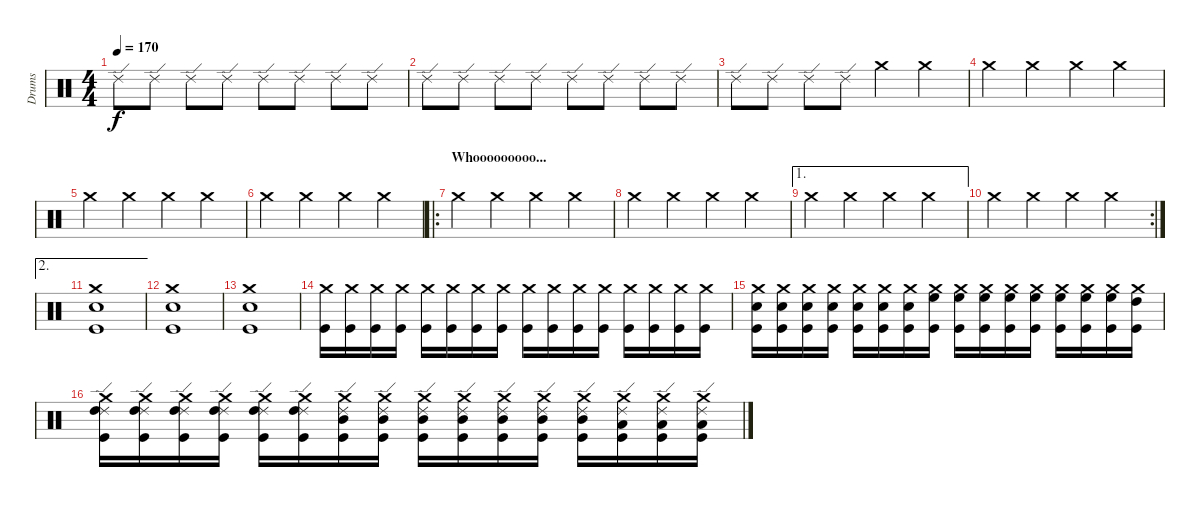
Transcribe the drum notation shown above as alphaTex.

\track ("Drums" "Drums") {instrument percussion}
\staff {score}
\articulation defaults
\ts (4 4)
\tempo 170
\clef neutral
\ks c "Ride (edge) 2".8{dy f} "Ride (edge) 2".8 "Ride (edge) 2".8 "Ride (edge) 2".8 "Ride (edge) 2".8 "Ride (edge) 2".8 "Ride (edge) 2".8 "Ride (edge) 2".8
|
"Ride (edge) 2".8 "Ride (edge) 2".8 "Ride (edge) 2".8 "Ride (edge) 2".8 "Ride (edge) 2".8 "Ride (edge) 2".8 "Ride (edge) 2".8 "Ride (edge) 2".8 |
"Ride (edge) 2".8 "Ride (edge) 2".8 "Ride (edge) 2".8 "Ride (edge) 2".8 "Crash medium (hit)".4 "Crash medium (hit)".4 |
"Crash medium (hit)".4 "Crash medium (hit)".4 "Crash medium (hit)".4 "Crash medium (hit)".4 |
"Crash medium (hit)".4 "Crash medium (hit)".4 "Crash medium (hit)".4 "Crash medium (hit)".4 |
"Crash medium (hit)".4 "Crash medium (hit)".4 "Crash medium (hit)".4 "Crash medium (hit)".4 |
\ro
\section ("" "Whooooooooo...")
"Crash medium (hit)".4 "Crash medium (hit)".4 "Crash medium (hit)".4 "Crash medium (hit)".4 |
"Crash medium (hit)".4 "Crash medium (hit)".4 "Crash medium (hit)".4 "Crash medium (hit)".4 |
\ae 1 "Crash medium (hit)".4 "Crash medium (hit)".4 "Crash medium (hit)".4 "Crash medium (hit)".4
|
\rc 2 "Crash medium (hit)".4 "Crash medium (hit)".4 "Crash medium (hit)".4 "Crash medium (hit)".4
|
\ae 2
("Snare (hit) 2" "Kick (hit)" "Crash medium (hit)").1 |
("Crash medium (hit)" "Snare (hit) 2" "Kick (hit)").1 |
("Crash medium (hit)" "Snare (hit) 2" "Kick (hit)").1 |
("Crash medium (hit)" "Kick (hit)").16 ("Crash medium (hit)" "Kick (hit)").16 ("Crash medium (hit)" "Kick (hit)").16 ("Crash medium (hit)" "Kick (hit)").16 ("Crash medium (hit)" "Kick (hit)").16 ("Crash medium (hit)" "Kick (hit)").16 ("Crash medium (hit)" "Kick (hit)").16 ("Crash medium (hit)" "Kick (hit)").16 ("Crash medium (hit)" "Kick (hit)").16 ("Crash medium (hit)" "Kick (hit)").16 ("Crash medium (hit)" "Kick (hit)").16 ("Crash medium (hit)" "Kick (hit)").16 ("Crash medium (hit)" "Kick (hit)").16 ("Crash medium (hit)" "Kick (hit)").16 ("Crash medium (hit)" "Kick (hit)").16 ("Crash medium (hit)" "Kick (hit)").16 |
("Crash medium (hit)" "Snare (hit) 2" "Kick (hit)").16 ("Crash medium (hit)" "Snare (hit) 2" "Kick (hit)").16 ("Crash medium (hit)" "Snare (hit) 2" "Kick (hit)").16 ("Crash medium (hit)" "Snare (hit) 2" "Kick (hit)").16 ("Crash medium (hit)" "Snare (hit) 2" "Kick (hit)").16 ("Crash medium (hit)" "Snare (hit) 2" "Kick (hit)").16 ("Crash medium (hit)" "Snare (hit) 2" "Kick (hit)").16 ("Crash medium (hit)" "High Floor Tom (hit)" "Kick (hit)").16 ("Crash medium (hit)" "High Floor Tom (hit)" "Kick (hit)").16 ("Crash medium (hit)" "High Floor Tom (hit)" "Kick (hit)").16 ("Crash medium (hit)" "High Floor Tom (hit)" "Kick (hit)").16 ("Crash medium (hit)" "High Floor Tom (hit)" "Kick (hit)").16 ("Crash medium (hit)" "High Floor Tom (hit)" "Kick (hit)").16 ("Crash medium (hit)" "High Floor Tom (hit)" "Kick (hit)").16 ("Crash medium (hit)" "High Floor Tom (hit)" "Kick (hit)").16 ("Crash medium (hit)" "High Tom (hit)" "Kick (hit)").16 |
("Crash medium (hit)" "Ride (edge) 2" "High Tom (hit)" "Kick (hit)").16 ("Crash medium (hit)" "Ride (edge) 2" "High Tom (hit)" "Kick (hit)").16 ("Crash medium (hit)" "Ride (edge) 2" "High Tom (hit)" "Kick (hit)").16 ("Crash medium (hit)" "Ride (edge) 2" "High Tom (hit)" "Kick (hit)").16 ("Crash medium (hit)" "Ride (edge) 2" "High Tom (hit)" "Kick (hit)").16 ("Crash medium (hit)" "Ride (edge) 2" "High Tom (hit)" "Kick (hit)").16 ("Crash medium (hit)" "Ride (edge) 2" "Mid Tom (hit)" "Kick (hit)").16 ("Crash medium (hit)" "Ride (edge) 2" "Mid Tom (hit)" "Kick (hit)").16 ("Crash medium (hit)" "Ride (edge) 2" "Mid Tom (hit)" "Kick (hit)").16 ("Crash medium (hit)" "Ride (edge) 2" "Mid Tom (hit)" "Kick (hit)").16 ("Crash medium (hit)" "Ride (edge) 2" "Mid Tom (hit)" "Kick (hit)").16 ("Crash medium (hit)" "Ride (edge) 2" "Mid Tom (hit)" "Kick (hit)").16 ("Crash medium (hit)" "Ride (edge) 2" "Mid Tom (hit)" "Kick (hit)").16 ("Crash medium (hit)" "Ride (edge) 2" "Low Tom (hit)" "Kick (hit)").16 ("Crash medium (hit)" "Ride (edge) 2" "Low Tom (hit)" "Kick (hit)").16 ("Crash medium (hit)" "Ride (edge) 2" "Low Tom (hit)" "Kick (hit)").16
